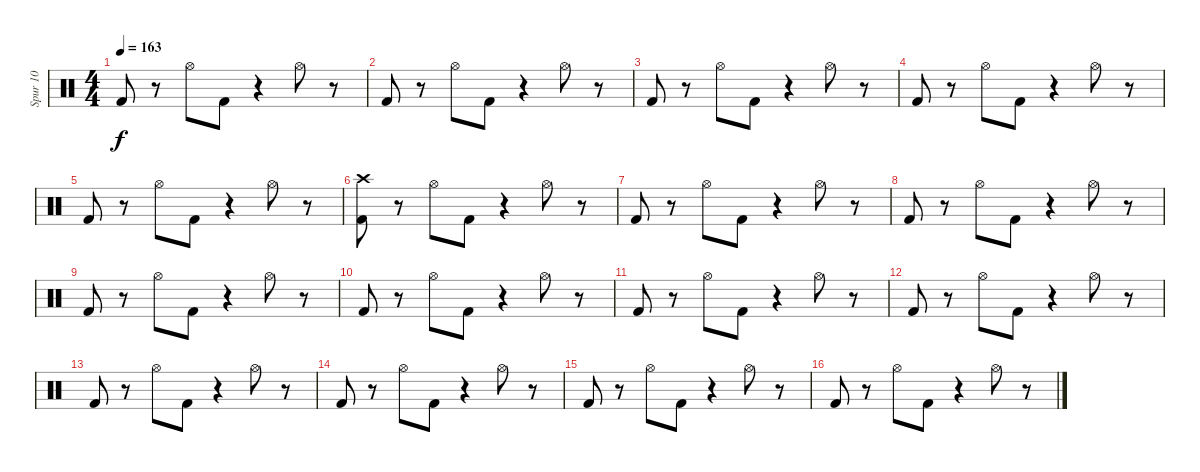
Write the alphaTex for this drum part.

\track ("Spur 10" "Spur 10") {instrument percussion}
\staff {score}
\articulation defaults
\ts (4 4)
\tempo 163
\clef neutral
\ks c "Kick (hit) 2".8{dy f}
r.8 "Hi-Hat (open)".8 "Kick (hit) 2".8 r.4 "Hi-Hat (open)".8 r.8 |
"Kick (hit) 2".8 r.8 "Hi-Hat (open)".8 "Kick (hit) 2".8 r.4 "Hi-Hat (open)".8 r.8 |
"Kick (hit) 2".8 r.8 "Hi-Hat (open)".8 "Kick (hit) 2".8 r.4 "Hi-Hat (open)".8 r.8 |
"Kick (hit) 2".8 r.8 "Hi-Hat (open)".8 "Kick (hit) 2".8 r.4 "Hi-Hat (open)".8 r.8 |
"Kick (hit) 2".8 r.8 "Hi-Hat (open)".8 "Kick (hit) 2".8 r.4 "Hi-Hat (open)".8 r.8 |
("Kick (hit) 2" "Crash high (hit)").8 r.8 "Hi-Hat (open)".8 "Kick (hit) 2".8 r.4 "Hi-Hat (open)".8 r.8 |
"Kick (hit) 2".8 r.8 "Hi-Hat (open)".8 "Kick (hit) 2".8 r.4 "Hi-Hat (open)".8 r.8 |
"Kick (hit) 2".8 r.8 "Hi-Hat (open)".8 "Kick (hit) 2".8 r.4 "Hi-Hat (open)".8 r.8 |
"Kick (hit) 2".8 r.8 "Hi-Hat (open)".8 "Kick (hit) 2".8 r.4 "Hi-Hat (open)".8 r.8 |
"Kick (hit) 2".8 r.8 "Hi-Hat (open)".8 "Kick (hit) 2".8 r.4 "Hi-Hat (open)".8 r.8 |
"Kick (hit) 2".8 r.8 "Hi-Hat (open)".8 "Kick (hit) 2".8 r.4 "Hi-Hat (open)".8 r.8 |
"Kick (hit) 2".8 r.8 "Hi-Hat (open)".8 "Kick (hit) 2".8 r.4 "Hi-Hat (open)".8 r.8 |
"Kick (hit) 2".8 r.8 "Hi-Hat (open)".8 "Kick (hit) 2".8 r.4 "Hi-Hat (open)".8 r.8 |
"Kick (hit) 2".8 r.8 "Hi-Hat (open)".8 "Kick (hit) 2".8 r.4 "Hi-Hat (open)".8 r.8 |
"Kick (hit) 2".8 r.8 "Hi-Hat (open)".8 "Kick (hit) 2".8 r.4 "Hi-Hat (open)".8 r.8 |
"Kick (hit) 2".8 r.8 "Hi-Hat (open)".8 "Kick (hit) 2".8 r.4 "Hi-Hat (open)".8 r.8
